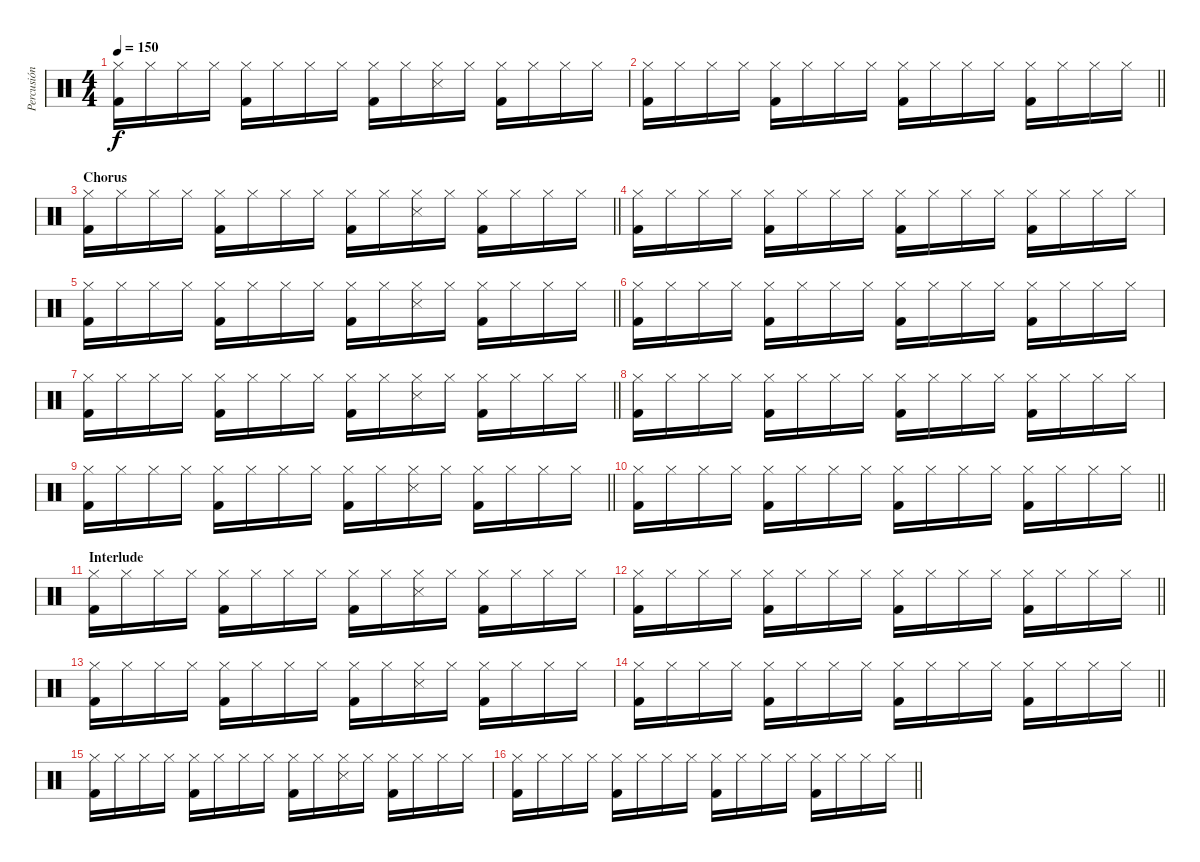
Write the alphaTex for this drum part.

\track ("Percusión" "Percusión") {instrument percussion}
\staff {score}
\articulation defaults
\ts (4 4)
\tempo 150
\clef neutral
\ks c
("Kick (hit) 2" "Hi-Hat (closed)").16{dy f} "Hi-Hat (closed)".16 "Hi-Hat (closed)".16 "Hi-Hat (closed)".16 ("Kick (hit) 2" "Hi-Hat (closed)").16 "Hi-Hat (closed)".16 "Hi-Hat (closed)".16 "Hi-Hat (closed)".16 ("Kick (hit) 2" "Hi-Hat (closed)").16 "Hi-Hat (closed)".16 ("Snare (side stick) 3" "Hi-Hat (closed)").16 "Hi-Hat (closed)".16 ("Kick (hit) 2" "Hi-Hat (closed)").16 "Hi-Hat (closed)".16 "Hi-Hat (closed)".16 "Hi-Hat (closed)".16 |
\barLineRight lightlight
("Kick (hit) 2" "Hi-Hat (closed)").16 "Hi-Hat (closed)".16 "Hi-Hat (closed)".16 "Hi-Hat (closed)".16 ("Kick (hit) 2" "Hi-Hat (closed)").16 "Hi-Hat (closed)".16 "Hi-Hat (closed)".16 "Hi-Hat (closed)".16 ("Kick (hit) 2" "Hi-Hat (closed)").16 "Hi-Hat (closed)".16 "Hi-Hat (closed)".16 "Hi-Hat (closed)".16 ("Kick (hit) 2" "Hi-Hat (closed)").16 "Hi-Hat (closed)".16 "Hi-Hat (closed)".16 "Hi-Hat (closed)".16 |
\section ("" "Chorus")
\barLineRight lightlight
("Kick (hit) 2" "Hi-Hat (closed)").16 "Hi-Hat (closed)".16 "Hi-Hat (closed)".16 "Hi-Hat (closed)".16 ("Kick (hit) 2" "Hi-Hat (closed)").16 "Hi-Hat (closed)".16 "Hi-Hat (closed)".16 "Hi-Hat (closed)".16 ("Kick (hit) 2" "Hi-Hat (closed)").16 "Hi-Hat (closed)".16 ("Snare (side stick) 3" "Hi-Hat (closed)").16 "Hi-Hat (closed)".16 ("Kick (hit) 2" "Hi-Hat (closed)").16 "Hi-Hat (closed)".16 "Hi-Hat (closed)".16 "Hi-Hat (closed)".16 |
("Kick (hit) 2" "Hi-Hat (closed)").16 "Hi-Hat (closed)".16 "Hi-Hat (closed)".16 "Hi-Hat (closed)".16 ("Kick (hit) 2" "Hi-Hat (closed)").16 "Hi-Hat (closed)".16 "Hi-Hat (closed)".16 "Hi-Hat (closed)".16 ("Kick (hit) 2" "Hi-Hat (closed)").16 "Hi-Hat (closed)".16 "Hi-Hat (closed)".16 "Hi-Hat (closed)".16 ("Kick (hit) 2" "Hi-Hat (closed)").16 "Hi-Hat (closed)".16 "Hi-Hat (closed)".16 "Hi-Hat (closed)".16 |
\barLineRight lightlight
("Kick (hit) 2" "Hi-Hat (closed)").16 "Hi-Hat (closed)".16 "Hi-Hat (closed)".16 "Hi-Hat (closed)".16 ("Kick (hit) 2" "Hi-Hat (closed)").16 "Hi-Hat (closed)".16 "Hi-Hat (closed)".16 "Hi-Hat (closed)".16 ("Kick (hit) 2" "Hi-Hat (closed)").16 "Hi-Hat (closed)".16 ("Snare (side stick) 3" "Hi-Hat (closed)").16 "Hi-Hat (closed)".16 ("Kick (hit) 2" "Hi-Hat (closed)").16 "Hi-Hat (closed)".16 "Hi-Hat (closed)".16 "Hi-Hat (closed)".16 |
("Kick (hit) 2" "Hi-Hat (closed)").16 "Hi-Hat (closed)".16 "Hi-Hat (closed)".16 "Hi-Hat (closed)".16 ("Kick (hit) 2" "Hi-Hat (closed)").16 "Hi-Hat (closed)".16 "Hi-Hat (closed)".16 "Hi-Hat (closed)".16 ("Kick (hit) 2" "Hi-Hat (closed)").16 "Hi-Hat (closed)".16 "Hi-Hat (closed)".16 "Hi-Hat (closed)".16 ("Kick (hit) 2" "Hi-Hat (closed)").16 "Hi-Hat (closed)".16 "Hi-Hat (closed)".16 "Hi-Hat (closed)".16 |
\barLineRight lightlight
("Kick (hit) 2" "Hi-Hat (closed)").16 "Hi-Hat (closed)".16 "Hi-Hat (closed)".16 "Hi-Hat (closed)".16 ("Kick (hit) 2" "Hi-Hat (closed)").16 "Hi-Hat (closed)".16 "Hi-Hat (closed)".16 "Hi-Hat (closed)".16 ("Kick (hit) 2" "Hi-Hat (closed)").16 "Hi-Hat (closed)".16 ("Snare (side stick) 3" "Hi-Hat (closed)").16 "Hi-Hat (closed)".16 ("Kick (hit) 2" "Hi-Hat (closed)").16 "Hi-Hat (closed)".16 "Hi-Hat (closed)".16 "Hi-Hat (closed)".16 |
("Kick (hit) 2" "Hi-Hat (closed)").16 "Hi-Hat (closed)".16 "Hi-Hat (closed)".16 "Hi-Hat (closed)".16 ("Kick (hit) 2" "Hi-Hat (closed)").16 "Hi-Hat (closed)".16 "Hi-Hat (closed)".16 "Hi-Hat (closed)".16 ("Kick (hit) 2" "Hi-Hat (closed)").16 "Hi-Hat (closed)".16 "Hi-Hat (closed)".16 "Hi-Hat (closed)".16 ("Kick (hit) 2" "Hi-Hat (closed)").16 "Hi-Hat (closed)".16 "Hi-Hat (closed)".16 "Hi-Hat (closed)".16 |
\barLineRight lightlight
("Kick (hit) 2" "Hi-Hat (closed)").16 "Hi-Hat (closed)".16 "Hi-Hat (closed)".16 "Hi-Hat (closed)".16 ("Kick (hit) 2" "Hi-Hat (closed)").16 "Hi-Hat (closed)".16 "Hi-Hat (closed)".16 "Hi-Hat (closed)".16 ("Kick (hit) 2" "Hi-Hat (closed)").16 "Hi-Hat (closed)".16 ("Snare (side stick) 3" "Hi-Hat (closed)").16 "Hi-Hat (closed)".16 ("Kick (hit) 2" "Hi-Hat (closed)").16 "Hi-Hat (closed)".16 "Hi-Hat (closed)".16 "Hi-Hat (closed)".16 |
\barLineRight lightlight
("Kick (hit) 2" "Hi-Hat (closed)").16 "Hi-Hat (closed)".16 "Hi-Hat (closed)".16 "Hi-Hat (closed)".16 ("Kick (hit) 2" "Hi-Hat (closed)").16 "Hi-Hat (closed)".16 "Hi-Hat (closed)".16 "Hi-Hat (closed)".16 ("Kick (hit) 2" "Hi-Hat (closed)").16 "Hi-Hat (closed)".16 "Hi-Hat (closed)".16 "Hi-Hat (closed)".16 ("Kick (hit) 2" "Hi-Hat (closed)").16 "Hi-Hat (closed)".16 "Hi-Hat (closed)".16 "Hi-Hat (closed)".16 |
\section ("" "Interlude")
("Kick (hit) 2" "Hi-Hat (closed)").16 "Hi-Hat (closed)".16 "Hi-Hat (closed)".16 "Hi-Hat (closed)".16 ("Kick (hit) 2" "Hi-Hat (closed)").16 "Hi-Hat (closed)".16 "Hi-Hat (closed)".16 "Hi-Hat (closed)".16 ("Kick (hit) 2" "Hi-Hat (closed)").16 "Hi-Hat (closed)".16 ("Snare (side stick) 3" "Hi-Hat (closed)").16 "Hi-Hat (closed)".16 ("Kick (hit) 2" "Hi-Hat (closed)").16 "Hi-Hat (closed)".16 "Hi-Hat (closed)".16 "Hi-Hat (closed)".16 |
\barLineRight lightlight
("Kick (hit) 2" "Hi-Hat (closed)").16 "Hi-Hat (closed)".16 "Hi-Hat (closed)".16 "Hi-Hat (closed)".16 ("Kick (hit) 2" "Hi-Hat (closed)").16 "Hi-Hat (closed)".16 "Hi-Hat (closed)".16 "Hi-Hat (closed)".16 ("Kick (hit) 2" "Hi-Hat (closed)").16 "Hi-Hat (closed)".16 "Hi-Hat (closed)".16 "Hi-Hat (closed)".16 ("Kick (hit) 2" "Hi-Hat (closed)").16 "Hi-Hat (closed)".16 "Hi-Hat (closed)".16 "Hi-Hat (closed)".16 |
("Kick (hit) 2" "Hi-Hat (closed)").16 "Hi-Hat (closed)".16 "Hi-Hat (closed)".16 "Hi-Hat (closed)".16 ("Kick (hit) 2" "Hi-Hat (closed)").16 "Hi-Hat (closed)".16 "Hi-Hat (closed)".16 "Hi-Hat (closed)".16 ("Kick (hit) 2" "Hi-Hat (closed)").16 "Hi-Hat (closed)".16 ("Snare (side stick) 3" "Hi-Hat (closed)").16 "Hi-Hat (closed)".16 ("Kick (hit) 2" "Hi-Hat (closed)").16 "Hi-Hat (closed)".16 "Hi-Hat (closed)".16 "Hi-Hat (closed)".16 |
\barLineRight lightlight
("Kick (hit) 2" "Hi-Hat (closed)").16 "Hi-Hat (closed)".16 "Hi-Hat (closed)".16 "Hi-Hat (closed)".16 ("Kick (hit) 2" "Hi-Hat (closed)").16 "Hi-Hat (closed)".16 "Hi-Hat (closed)".16 "Hi-Hat (closed)".16 ("Kick (hit) 2" "Hi-Hat (closed)").16 "Hi-Hat (closed)".16 "Hi-Hat (closed)".16 "Hi-Hat (closed)".16 ("Kick (hit) 2" "Hi-Hat (closed)").16 "Hi-Hat (closed)".16 "Hi-Hat (closed)".16 "Hi-Hat (closed)".16 |
("Kick (hit) 2" "Hi-Hat (closed)").16 "Hi-Hat (closed)".16 "Hi-Hat (closed)".16 "Hi-Hat (closed)".16 ("Kick (hit) 2" "Hi-Hat (closed)").16 "Hi-Hat (closed)".16 "Hi-Hat (closed)".16 "Hi-Hat (closed)".16 ("Kick (hit) 2" "Hi-Hat (closed)").16 "Hi-Hat (closed)".16 ("Snare (side stick) 3" "Hi-Hat (closed)").16 "Hi-Hat (closed)".16 ("Kick (hit) 2" "Hi-Hat (closed)").16 "Hi-Hat (closed)".16 "Hi-Hat (closed)".16 "Hi-Hat (closed)".16 |
\barLineRight lightlight
("Kick (hit) 2" "Hi-Hat (closed)").16 "Hi-Hat (closed)".16 "Hi-Hat (closed)".16 "Hi-Hat (closed)".16 ("Kick (hit) 2" "Hi-Hat (closed)").16 "Hi-Hat (closed)".16 "Hi-Hat (closed)".16 "Hi-Hat (closed)".16 ("Kick (hit) 2" "Hi-Hat (closed)").16 "Hi-Hat (closed)".16 "Hi-Hat (closed)".16 "Hi-Hat (closed)".16 ("Kick (hit) 2" "Hi-Hat (closed)").16 "Hi-Hat (closed)".16 "Hi-Hat (closed)".16 "Hi-Hat (closed)".16
